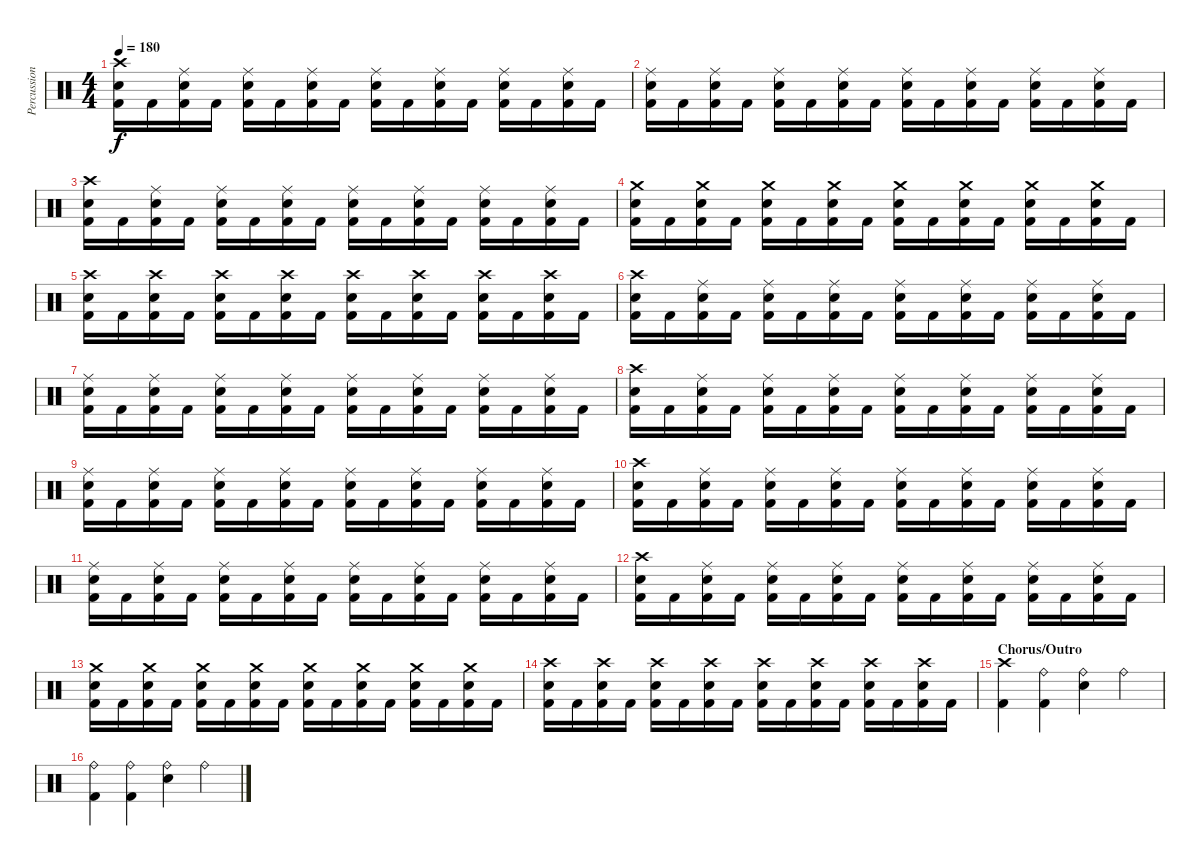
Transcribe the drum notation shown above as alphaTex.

\track ("Percussion" "Percussion") {instrument percussion}
\staff {score}
\articulation defaults
\ts (4 4)
\tempo 180
\clef neutral
\ks c
("Crash high (hit)" "Snare (hit) 2" "Kick (hit) 2").16{dy f} "Kick (hit) 2".16 ("Ride (middle)" "Snare (hit) 2" "Kick (hit) 2").16 "Kick (hit) 2".16 ("Ride (middle)" "Snare (hit) 2" "Kick (hit) 2").16 "Kick (hit) 2".16 ("Ride (middle)" "Snare (hit) 2" "Kick (hit) 2").16 "Kick (hit) 2".16 ("Ride (middle)" "Snare (hit) 2" "Kick (hit) 2").16 "Kick (hit) 2".16 ("Ride (middle)" "Snare (hit) 2" "Kick (hit) 2").16 "Kick (hit) 2".16 ("Ride (middle)" "Snare (hit) 2" "Kick (hit) 2").16 "Kick (hit) 2".16 ("Ride (middle)" "Snare (hit) 2" "Kick (hit) 2").16 "Kick (hit) 2".16 |
("Ride (middle)" "Snare (hit) 2" "Kick (hit) 2").16 "Kick (hit) 2".16 ("Ride (middle)" "Snare (hit) 2" "Kick (hit) 2").16 "Kick (hit) 2".16 ("Ride (middle)" "Snare (hit) 2" "Kick (hit) 2").16 "Kick (hit) 2".16 ("Ride (middle)" "Snare (hit) 2" "Kick (hit) 2").16 "Kick (hit) 2".16 ("Ride (middle)" "Snare (hit) 2" "Kick (hit) 2").16 "Kick (hit) 2".16 ("Ride (middle)" "Snare (hit) 2" "Kick (hit) 2").16 "Kick (hit) 2".16 ("Ride (middle)" "Snare (hit) 2" "Kick (hit) 2").16 "Kick (hit) 2".16 ("Ride (middle)" "Snare (hit) 2" "Kick (hit) 2").16 "Kick (hit) 2".16 |
("Crash high (hit)" "Snare (hit) 2" "Kick (hit) 2").16 "Kick (hit) 2".16 ("Ride (middle)" "Snare (hit) 2" "Kick (hit) 2").16 "Kick (hit) 2".16 ("Ride (middle)" "Snare (hit) 2" "Kick (hit) 2").16 "Kick (hit) 2".16 ("Ride (middle)" "Snare (hit) 2" "Kick (hit) 2").16 "Kick (hit) 2".16 ("Ride (middle)" "Snare (hit) 2" "Kick (hit) 2").16 "Kick (hit) 2".16 ("Ride (middle)" "Snare (hit) 2" "Kick (hit) 2").16 "Kick (hit) 2".16 ("Ride (middle)" "Snare (hit) 2" "Kick (hit) 2").16 "Kick (hit) 2".16 ("Ride (middle)" "Snare (hit) 2" "Kick (hit) 2").16 "Kick (hit) 2".16 |
("Crash medium (hit)" "Snare (hit) 2" "Kick (hit) 2").16 "Kick (hit) 2".16 ("Crash medium (hit)" "Snare (hit) 2" "Kick (hit) 2").16 "Kick (hit) 2".16 ("Crash medium (hit)" "Snare (hit) 2" "Kick (hit) 2").16 "Kick (hit) 2".16 ("Crash medium (hit)" "Snare (hit) 2" "Kick (hit) 2").16 "Kick (hit) 2".16 ("Crash medium (hit)" "Snare (hit) 2" "Kick (hit) 2").16 "Kick (hit) 2".16 ("Crash medium (hit)" "Snare (hit) 2" "Kick (hit) 2").16 "Kick (hit) 2".16 ("Crash medium (hit)" "Snare (hit) 2" "Kick (hit) 2").16 "Kick (hit) 2".16 ("Crash medium (hit)" "Snare (hit) 2" "Kick (hit) 2").16 "Kick (hit) 2".16 |
("Crash high (hit)" "Snare (hit) 2" "Kick (hit) 2").16 "Kick (hit) 2".16 ("Crash high (hit)" "Snare (hit) 2" "Kick (hit) 2").16 "Kick (hit) 2".16 ("Crash high (hit)" "Snare (hit) 2" "Kick (hit) 2").16 "Kick (hit) 2".16 ("Crash high (hit)" "Snare (hit) 2" "Kick (hit) 2").16 "Kick (hit) 2".16 ("Crash high (hit)" "Snare (hit) 2" "Kick (hit) 2").16 "Kick (hit) 2".16 ("Crash high (hit)" "Snare (hit) 2" "Kick (hit) 2").16 "Kick (hit) 2".16 ("Crash high (hit)" "Snare (hit) 2" "Kick (hit) 2").16 "Kick (hit) 2".16 ("Crash high (hit)" "Snare (hit) 2" "Kick (hit) 2").16 "Kick (hit) 2".16 |
("Crash high (hit)" "Snare (hit) 2" "Kick (hit) 2").16 "Kick (hit) 2".16 ("Ride (middle)" "Snare (hit) 2" "Kick (hit) 2").16 "Kick (hit) 2".16 ("Ride (middle)" "Snare (hit) 2" "Kick (hit) 2").16 "Kick (hit) 2".16 ("Ride (middle)" "Snare (hit) 2" "Kick (hit) 2").16 "Kick (hit) 2".16 ("Ride (middle)" "Snare (hit) 2" "Kick (hit) 2").16 "Kick (hit) 2".16 ("Ride (middle)" "Snare (hit) 2" "Kick (hit) 2").16 "Kick (hit) 2".16 ("Ride (middle)" "Snare (hit) 2" "Kick (hit) 2").16 "Kick (hit) 2".16 ("Ride (middle)" "Snare (hit) 2" "Kick (hit) 2").16 "Kick (hit) 2".16 |
("Ride (middle)" "Snare (hit) 2" "Kick (hit) 2").16 "Kick (hit) 2".16 ("Ride (middle)" "Snare (hit) 2" "Kick (hit) 2").16 "Kick (hit) 2".16 ("Ride (middle)" "Snare (hit) 2" "Kick (hit) 2").16 "Kick (hit) 2".16 ("Ride (middle)" "Snare (hit) 2" "Kick (hit) 2").16 "Kick (hit) 2".16 ("Ride (middle)" "Snare (hit) 2" "Kick (hit) 2").16 "Kick (hit) 2".16 ("Ride (middle)" "Snare (hit) 2" "Kick (hit) 2").16 "Kick (hit) 2".16 ("Ride (middle)" "Snare (hit) 2" "Kick (hit) 2").16 "Kick (hit) 2".16 ("Ride (middle)" "Snare (hit) 2" "Kick (hit) 2").16 "Kick (hit) 2".16 |
("Crash high (hit)" "Snare (hit) 2" "Kick (hit) 2").16 "Kick (hit) 2".16 ("Ride (middle)" "Snare (hit) 2" "Kick (hit) 2").16 "Kick (hit) 2".16 ("Ride (middle)" "Snare (hit) 2" "Kick (hit) 2").16 "Kick (hit) 2".16 ("Ride (middle)" "Snare (hit) 2" "Kick (hit) 2").16 "Kick (hit) 2".16 ("Ride (middle)" "Snare (hit) 2" "Kick (hit) 2").16 "Kick (hit) 2".16 ("Ride (middle)" "Snare (hit) 2" "Kick (hit) 2").16 "Kick (hit) 2".16 ("Ride (middle)" "Snare (hit) 2" "Kick (hit) 2").16 "Kick (hit) 2".16 ("Ride (middle)" "Snare (hit) 2" "Kick (hit) 2").16 "Kick (hit) 2".16 |
("Ride (middle)" "Snare (hit) 2" "Kick (hit) 2").16 "Kick (hit) 2".16 ("Ride (middle)" "Snare (hit) 2" "Kick (hit) 2").16 "Kick (hit) 2".16 ("Ride (middle)" "Snare (hit) 2" "Kick (hit) 2").16 "Kick (hit) 2".16 ("Ride (middle)" "Snare (hit) 2" "Kick (hit) 2").16 "Kick (hit) 2".16 ("Ride (middle)" "Snare (hit) 2" "Kick (hit) 2").16 "Kick (hit) 2".16 ("Ride (middle)" "Snare (hit) 2" "Kick (hit) 2").16 "Kick (hit) 2".16 ("Ride (middle)" "Snare (hit) 2" "Kick (hit) 2").16 "Kick (hit) 2".16 ("Ride (middle)" "Snare (hit) 2" "Kick (hit) 2").16 "Kick (hit) 2".16 |
("Crash high (hit)" "Snare (hit) 2" "Kick (hit) 2").16 "Kick (hit) 2".16 ("Ride (middle)" "Snare (hit) 2" "Kick (hit) 2").16 "Kick (hit) 2".16 ("Ride (middle)" "Snare (hit) 2" "Kick (hit) 2").16 "Kick (hit) 2".16 ("Ride (middle)" "Snare (hit) 2" "Kick (hit) 2").16 "Kick (hit) 2".16 ("Ride (middle)" "Snare (hit) 2" "Kick (hit) 2").16 "Kick (hit) 2".16 ("Ride (middle)" "Snare (hit) 2" "Kick (hit) 2").16 "Kick (hit) 2".16 ("Ride (middle)" "Snare (hit) 2" "Kick (hit) 2").16 "Kick (hit) 2".16 ("Ride (middle)" "Snare (hit) 2" "Kick (hit) 2").16 "Kick (hit) 2".16 |
("Ride (middle)" "Snare (hit) 2" "Kick (hit) 2").16 "Kick (hit) 2".16 ("Ride (middle)" "Snare (hit) 2" "Kick (hit) 2").16 "Kick (hit) 2".16 ("Ride (middle)" "Snare (hit) 2" "Kick (hit) 2").16 "Kick (hit) 2".16 ("Ride (middle)" "Snare (hit) 2" "Kick (hit) 2").16 "Kick (hit) 2".16 ("Ride (middle)" "Snare (hit) 2" "Kick (hit) 2").16 "Kick (hit) 2".16 ("Ride (middle)" "Snare (hit) 2" "Kick (hit) 2").16 "Kick (hit) 2".16 ("Ride (middle)" "Snare (hit) 2" "Kick (hit) 2").16 "Kick (hit) 2".16 ("Ride (middle)" "Snare (hit) 2" "Kick (hit) 2").16 "Kick (hit) 2".16 |
("Crash high (hit)" "Snare (hit) 2" "Kick (hit) 2").16 "Kick (hit) 2".16 ("Ride (middle)" "Snare (hit) 2" "Kick (hit) 2").16 "Kick (hit) 2".16 ("Ride (middle)" "Snare (hit) 2" "Kick (hit) 2").16 "Kick (hit) 2".16 ("Ride (middle)" "Snare (hit) 2" "Kick (hit) 2").16 "Kick (hit) 2".16 ("Ride (middle)" "Snare (hit) 2" "Kick (hit) 2").16 "Kick (hit) 2".16 ("Ride (middle)" "Snare (hit) 2" "Kick (hit) 2").16 "Kick (hit) 2".16 ("Ride (middle)" "Snare (hit) 2" "Kick (hit) 2").16 "Kick (hit) 2".16 ("Ride (middle)" "Snare (hit) 2" "Kick (hit) 2").16 "Kick (hit) 2".16 |
("Crash medium (hit)" "Snare (hit) 2" "Kick (hit) 2").16 "Kick (hit) 2".16 ("Crash medium (hit)" "Snare (hit) 2" "Kick (hit) 2").16 "Kick (hit) 2".16 ("Crash medium (hit)" "Snare (hit) 2" "Kick (hit) 2").16 "Kick (hit) 2".16 ("Crash medium (hit)" "Snare (hit) 2" "Kick (hit) 2").16 "Kick (hit) 2".16 ("Crash medium (hit)" "Snare (hit) 2" "Kick (hit) 2").16 "Kick (hit) 2".16 ("Crash medium (hit)" "Snare (hit) 2" "Kick (hit) 2").16 "Kick (hit) 2".16 ("Crash medium (hit)" "Snare (hit) 2" "Kick (hit) 2").16 "Kick (hit) 2".16 ("Crash medium (hit)" "Snare (hit) 2" "Kick (hit) 2").16 "Kick (hit) 2".16 |
("Crash high (hit)" "Snare (hit) 2" "Kick (hit) 2").16 "Kick (hit) 2".16 ("Crash high (hit)" "Snare (hit) 2" "Kick (hit) 2").16 "Kick (hit) 2".16 ("Crash high (hit)" "Snare (hit) 2" "Kick (hit) 2").16 "Kick (hit) 2".16 ("Crash high (hit)" "Snare (hit) 2" "Kick (hit) 2").16 "Kick (hit) 2".16 ("Crash high (hit)" "Snare (hit) 2" "Kick (hit) 2").16 "Kick (hit) 2".16 ("Crash high (hit)" "Snare (hit) 2" "Kick (hit) 2").16 "Kick (hit) 2".16 ("Crash high (hit)" "Snare (hit) 2" "Kick (hit) 2").16 "Kick (hit) 2".16 ("Crash high (hit)" "Snare (hit) 2" "Kick (hit) 2").16 "Kick (hit) 2".16 |
\section ("" "Chorus/Outro")
("Crash high (hit)" "Kick (hit) 2").4 ("Ride (bell)" "Kick (hit) 2").4 ("Ride (bell)" "Snare (hit) 2").4 "Ride (bell)".4 |
("Ride (bell)" "Kick (hit) 2").4 ("Ride (bell)" "Kick (hit) 2").4 ("Ride (bell)" "Snare (hit) 2").4 "Ride (bell)".4
